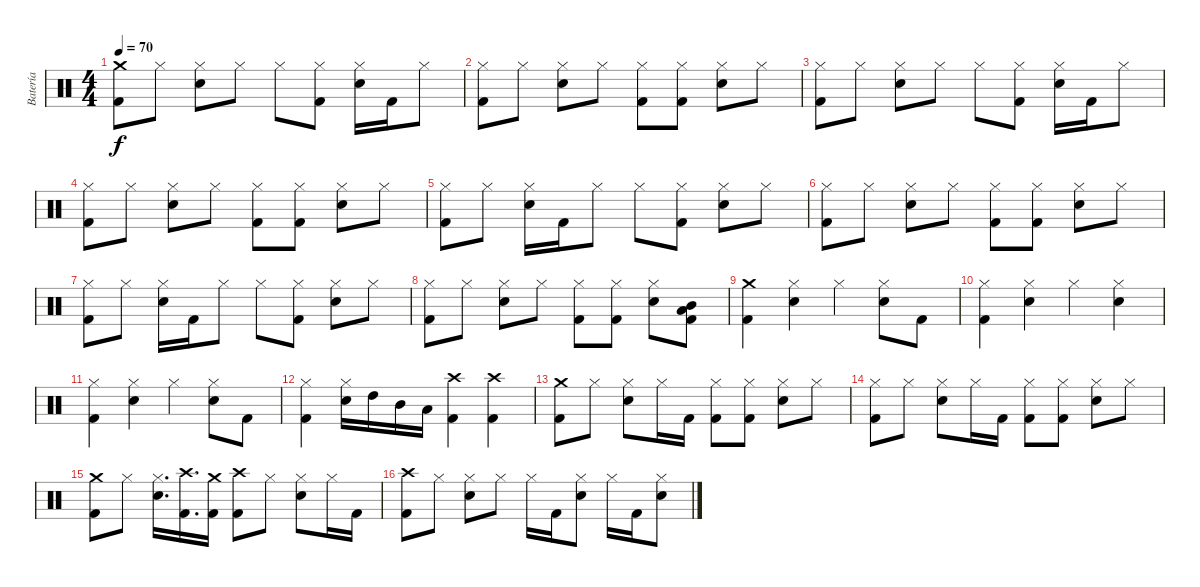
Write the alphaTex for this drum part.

\track ("Batería" "Batería") {instrument percussion}
\staff {score}
\articulation defaults
\ts (4 4)
\tempo 70
\clef neutral
\ks c
("Kick (hit) 2" "Crash medium (hit)").8{dy f} "Hi-Hat (closed)".8 ("Snare (hit) 2" "Hi-Hat (closed)").8 "Hi-Hat (closed)".8 "Hi-Hat (closed)".8 ("Kick (hit) 2" "Hi-Hat (closed)").8 ("Snare (hit) 2" "Hi-Hat (closed)").16 "Kick (hit) 2".16 "Hi-Hat (closed)".8 |
("Kick (hit) 2" "Hi-Hat (closed)").8 "Hi-Hat (closed)".8 ("Snare (hit) 2" "Hi-Hat (closed)").8 "Hi-Hat (closed)".8 ("Kick (hit) 2" "Hi-Hat (closed)").8 ("Kick (hit) 2" "Hi-Hat (closed)").8 ("Snare (hit) 2" "Hi-Hat (closed)").8 "Hi-Hat (closed)".8 |
("Kick (hit) 2" "Hi-Hat (closed)").8 "Hi-Hat (closed)".8 ("Snare (hit) 2" "Hi-Hat (closed)").8 "Hi-Hat (closed)".8 "Hi-Hat (closed)".8 ("Kick (hit) 2" "Hi-Hat (closed)").8 ("Snare (hit) 2" "Hi-Hat (closed)").16 "Kick (hit) 2".16 "Hi-Hat (closed)".8 |
("Kick (hit) 2" "Hi-Hat (closed)").8 "Hi-Hat (closed)".8 ("Snare (hit) 2" "Hi-Hat (closed)").8 "Hi-Hat (closed)".8 ("Kick (hit) 2" "Hi-Hat (closed)").8 ("Kick (hit) 2" "Hi-Hat (closed)").8 ("Snare (hit) 2" "Hi-Hat (closed)").8 "Hi-Hat (closed)".8 |
("Kick (hit) 2" "Hi-Hat (closed)").8 "Hi-Hat (closed)".8 ("Snare (hit) 2" "Hi-Hat (closed)").16 "Kick (hit) 2".16 "Hi-Hat (closed)".8 "Hi-Hat (closed)".8 ("Kick (hit) 2" "Hi-Hat (closed)").8 ("Snare (hit) 2" "Hi-Hat (closed)").8 "Hi-Hat (closed)".8 |
("Kick (hit) 2" "Hi-Hat (closed)").8 "Hi-Hat (closed)".8 ("Snare (hit) 2" "Hi-Hat (closed)").8 "Hi-Hat (closed)".8 ("Kick (hit) 2" "Hi-Hat (closed)").8 ("Kick (hit) 2" "Hi-Hat (closed)").8 ("Snare (hit) 2" "Hi-Hat (closed)").8 "Hi-Hat (closed)".8 |
("Kick (hit) 2" "Hi-Hat (closed)").8 "Hi-Hat (closed)".8 ("Snare (hit) 2" "Hi-Hat (closed)").16 "Kick (hit) 2".16 "Hi-Hat (closed)".8 "Hi-Hat (closed)".8 ("Kick (hit) 2" "Hi-Hat (closed)").8 ("Snare (hit) 2" "Hi-Hat (closed)").8 "Hi-Hat (closed)".8 |
("Kick (hit) 2" "Hi-Hat (closed)").8 "Hi-Hat (closed)".8 ("Snare (hit) 2" "Hi-Hat (closed)").8 "Hi-Hat (closed)".8 ("Kick (hit) 2" "Hi-Hat (closed)").8 ("Kick (hit) 2" "Hi-Hat (closed)").8 ("Snare (hit) 2" "Hi-Hat (closed)").8 ("Low Tom (hit)" "Mid Tom (hit)" "Kick (hit) 2").8 |
("Crash medium (hit)" "Kick (hit) 2").4 ("Hi-Hat (closed)" "Snare (hit) 2").4 "Hi-Hat (closed)".4 ("Hi-Hat (closed)" "Snare (hit) 2").8 "Kick (hit) 2".8 |
("Hi-Hat (closed)" "Kick (hit) 2").4 ("Hi-Hat (closed)" "Snare (hit) 2").4 "Hi-Hat (closed)".4 ("Hi-Hat (closed)" "Snare (hit) 2").4 |
("Hi-Hat (closed)" "Kick (hit) 2").4 ("Hi-Hat (closed)" "Snare (hit) 2").4 "Hi-Hat (closed)".4 ("Hi-Hat (closed)" "Snare (hit) 2").8 "Kick (hit) 2".8 |
("Hi-Hat (closed)" "Kick (hit) 2").4 ("Hi-Hat (closed)" "Snare (hit) 2").16 "High Tom (hit)".16 "Mid Tom (hit)".16 "Low Tom (hit)".16 ("Kick (hit) 2" "Crash high (hit)").4 ("Kick (hit) 2" "Crash high (hit)").4 |
("Kick (hit) 2" "Crash medium (hit)").8 "Hi-Hat (closed)".8 ("Snare (hit) 2" "Hi-Hat (closed)").8 "Hi-Hat (closed)".16 "Kick (hit) 2".16 ("Kick (hit) 2" "Hi-Hat (closed)").8 ("Kick (hit) 2" "Hi-Hat (closed)").8 ("Snare (hit) 2" "Hi-Hat (closed)").8 "Hi-Hat (closed)".8 |
("Kick (hit) 2" "Hi-Hat (closed)").8 "Hi-Hat (closed)".8 ("Snare (hit) 2" "Hi-Hat (closed)").8 "Hi-Hat (closed)".16 "Kick (hit) 2".16 ("Kick (hit) 2" "Hi-Hat (closed)").8 ("Kick (hit) 2" "Hi-Hat (closed)").8 ("Snare (hit) 2" "Hi-Hat (closed)").8 "Hi-Hat (closed)".8 |
("Kick (hit) 2" "Crash medium (hit)").8 "Hi-Hat (closed)".8 ("Snare (hit) 2" "Hi-Hat (closed)").16{d} ("Crash high (hit)" "Kick (hit) 2").16{d} ("Crash medium (hit)" "Kick (hit) 2").16 ("Crash high (hit)" "Kick (hit) 2").8 "Hi-Hat (closed)".8 ("Snare (hit) 2" "Hi-Hat (closed)").8 "Hi-Hat (closed)".16 "Kick (hit) 2".16 |
("Kick (hit) 2" "Crash high (hit)").8 "Hi-Hat (closed)".8 ("Snare (hit) 2" "Hi-Hat (closed)").8 "Hi-Hat (closed)".8 "Hi-Hat (closed)".16 "Kick (hit) 2".16 ("Snare (hit) 2" "Hi-Hat (closed)").8 "Hi-Hat (closed)".16 "Kick (hit) 2".16 ("Snare (hit) 2" "Hi-Hat (closed)").8
